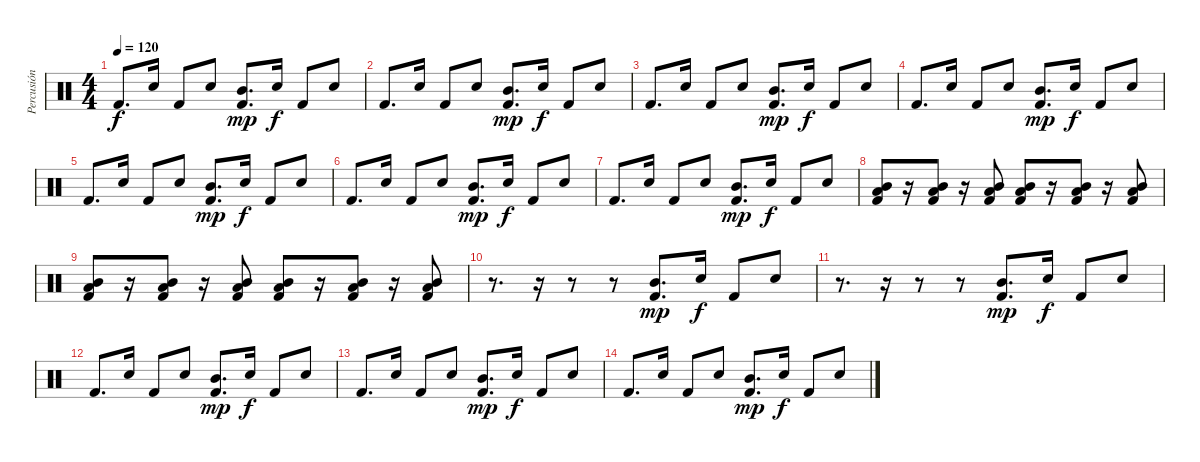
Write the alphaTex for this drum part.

\track ("Percusión" "Percusión") {instrument percussion}
\staff {score}
\articulation defaults
\ts (4 4)
\tempo 120
\clef neutral
\ks c "Kick (hit) 2".8{d dy f} "Electric Snare (hit)".16 "Kick (hit) 2".8 "Electric Snare (hit)".8
("Kick (hit) 2" "Mid Tom (hit)").8{d dy mp} "Electric Snare (hit)".16{dy f} "Kick (hit) 2".8 "Electric Snare (hit)".8 |
"Kick (hit) 2".8{d} "Electric Snare (hit)".16 "Kick (hit) 2".8 "Electric Snare (hit)".8 ("Kick (hit) 2" "Mid Tom (hit)").8{d dy mp} "Electric Snare (hit)".16{dy f} "Kick (hit) 2".8 "Electric Snare (hit)".8 |
"Kick (hit) 2".8{d} "Electric Snare (hit)".16 "Kick (hit) 2".8 "Electric Snare (hit)".8 ("Kick (hit) 2" "Mid Tom (hit)").8{d dy mp} "Electric Snare (hit)".16{dy f} "Kick (hit) 2".8 "Electric Snare (hit)".8 |
"Kick (hit) 2".8{d} "Electric Snare (hit)".16 "Kick (hit) 2".8 "Electric Snare (hit)".8 ("Kick (hit) 2" "Mid Tom (hit)").8{d dy mp} "Electric Snare (hit)".16{dy f} "Kick (hit) 2".8 "Electric Snare (hit)".8 |
"Kick (hit) 2".8{d} "Electric Snare (hit)".16 "Kick (hit) 2".8 "Electric Snare (hit)".8 ("Kick (hit) 2" "Mid Tom (hit)").8{d dy mp} "Electric Snare (hit)".16{dy f} "Kick (hit) 2".8 "Electric Snare (hit)".8 |
"Kick (hit) 2".8{d} "Electric Snare (hit)".16 "Kick (hit) 2".8 "Electric Snare (hit)".8 ("Kick (hit) 2" "Mid Tom (hit)").8{d dy mp} "Electric Snare (hit)".16{dy f} "Kick (hit) 2".8 "Electric Snare (hit)".8 |
"Kick (hit) 2".8{d} "Electric Snare (hit)".16 "Kick (hit) 2".8 "Electric Snare (hit)".8 ("Kick (hit) 2" "Mid Tom (hit)").8{d dy mp} "Electric Snare (hit)".16{dy f} "Kick (hit) 2".8 "Electric Snare (hit)".8 |
("Low Tom (hit)" "Mid Tom (hit)" "Kick (hit) 2").8 r.16 ("Low Tom (hit)" "Mid Tom (hit)" "Kick (hit) 2").8 r.16 ("Low Tom (hit)" "Mid Tom (hit)" "Kick (hit) 2").8 ("Low Tom (hit)" "Mid Tom (hit)" "Kick (hit) 2").8 r.16 ("Low Tom (hit)" "Mid Tom (hit)" "Kick (hit) 2").8 r.16 ("Low Tom (hit)" "Mid Tom (hit)" "Kick (hit) 2").8 |
("Low Tom (hit)" "Mid Tom (hit)" "Kick (hit) 2").8 r.16 ("Low Tom (hit)" "Mid Tom (hit)" "Kick (hit) 2").8 r.16 ("Low Tom (hit)" "Mid Tom (hit)" "Kick (hit) 2").8 ("Low Tom (hit)" "Mid Tom (hit)" "Kick (hit) 2").8 r.16 ("Low Tom (hit)" "Mid Tom (hit)" "Kick (hit) 2").8 r.16 ("Low Tom (hit)" "Mid Tom (hit)" "Kick (hit) 2").8 |
r.8{d} r.16 r.8 r.8 ("Kick (hit) 2" "Mid Tom (hit)").8{d dy mp} "Electric Snare (hit)".16{dy f} "Kick (hit) 2".8 "Electric Snare (hit)".8 |
r.8{d} r.16 r.8 r.8 ("Kick (hit) 2" "Mid Tom (hit)").8{d dy mp} "Electric Snare (hit)".16{dy f} "Kick (hit) 2".8 "Electric Snare (hit)".8 |
"Kick (hit) 2".8{d} "Electric Snare (hit)".16 "Kick (hit) 2".8 "Electric Snare (hit)".8 ("Kick (hit) 2" "Mid Tom (hit)").8{d dy mp} "Electric Snare (hit)".16{dy f} "Kick (hit) 2".8 "Electric Snare (hit)".8 |
"Kick (hit) 2".8{d} "Electric Snare (hit)".16 "Kick (hit) 2".8 "Electric Snare (hit)".8 ("Kick (hit) 2" "Mid Tom (hit)").8{d dy mp} "Electric Snare (hit)".16{dy f} "Kick (hit) 2".8 "Electric Snare (hit)".8 |
"Kick (hit) 2".8{d} "Electric Snare (hit)".16 "Kick (hit) 2".8 "Electric Snare (hit)".8 ("Kick (hit) 2" "Mid Tom (hit)").8{d dy mp} "Electric Snare (hit)".16{dy f} "Kick (hit) 2".8 "Electric Snare (hit)".8
